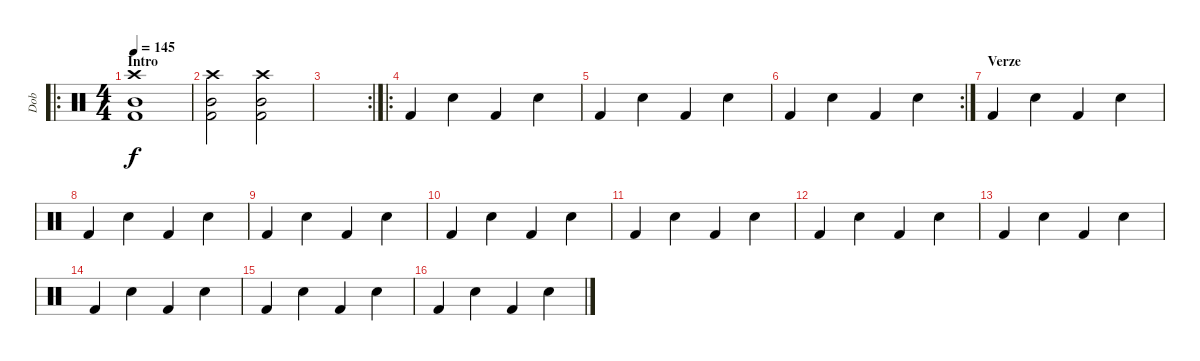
\track ("Dob" "Dob") {instrument percussion}
\staff {score}
\articulation defaults
\ro
\ts (4 4)
\section ("" "Intro")
\tempo 145
\clef neutral
\ks c
("Crash high (hit)" "Mid Tom (hit)" "Kick (hit) 2").1{dy f} |
("Crash high (hit)" "Mid Tom (hit)" "Kick (hit) 2").2 ("Crash high (hit)" "Mid Tom (hit)" "Kick (hit) 2").2 |
\rc 2
|
\ro "Kick (hit) 2".4 "Electric Snare (hit)".4 "Kick (hit) 2".4 "Electric Snare (hit)".4
|
"Kick (hit) 2".4 "Electric Snare (hit)".4 "Kick (hit) 2".4 "Electric Snare (hit)".4 |
\rc 2 "Kick (hit) 2".4 "Electric Snare (hit)".4 "Kick (hit) 2".4 "Electric Snare (hit)".4
|
\section ("" "Verze")
"Kick (hit) 2".4 "Electric Snare (hit)".4 "Kick (hit) 2".4 "Electric Snare (hit)".4 |
"Kick (hit) 2".4 "Electric Snare (hit)".4 "Kick (hit) 2".4 "Electric Snare (hit)".4 |
"Kick (hit) 2".4 "Electric Snare (hit)".4 "Kick (hit) 2".4 "Electric Snare (hit)".4 |
"Kick (hit) 2".4 "Electric Snare (hit)".4 "Kick (hit) 2".4 "Electric Snare (hit)".4 |
"Kick (hit) 2".4 "Electric Snare (hit)".4 "Kick (hit) 2".4 "Electric Snare (hit)".4 |
"Kick (hit) 2".4 "Electric Snare (hit)".4 "Kick (hit) 2".4 "Electric Snare (hit)".4 |
"Kick (hit) 2".4 "Electric Snare (hit)".4 "Kick (hit) 2".4 "Electric Snare (hit)".4 |
"Kick (hit) 2".4 "Electric Snare (hit)".4 "Kick (hit) 2".4 "Electric Snare (hit)".4 |
"Kick (hit) 2".4 "Electric Snare (hit)".4 "Kick (hit) 2".4 "Electric Snare (hit)".4 |
"Kick (hit) 2".4 "Electric Snare (hit)".4 "Kick (hit) 2".4 "Electric Snare (hit)".4
